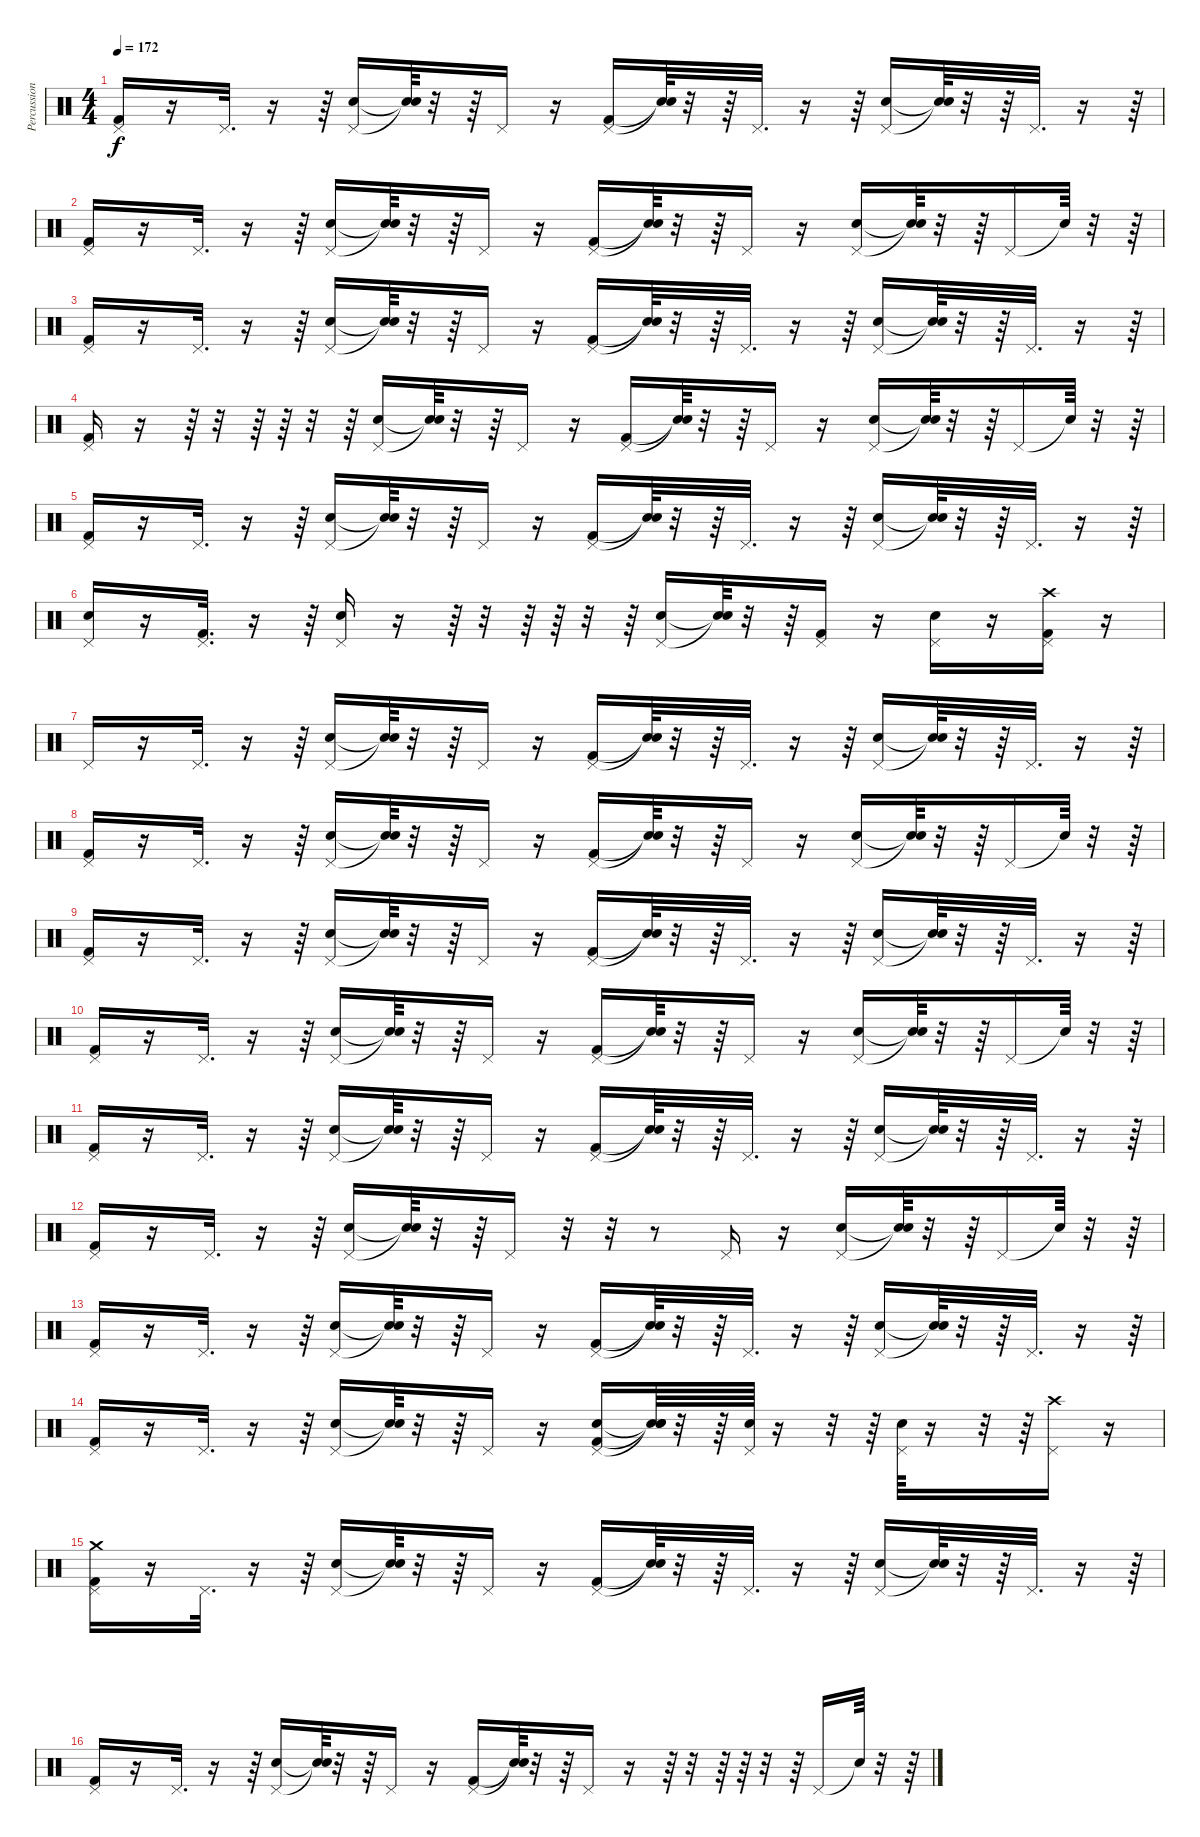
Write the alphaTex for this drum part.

\track ("Percussions" "Percussion") {instrument percussion}
\staff {score}
\articulation defaults
\ts (4 4)
\tempo 172
\clef neutral
\ks c
("Pedal Hi-Hat (hit)" "Kick (hit) 2").16{dy f} r.16 "Pedal Hi-Hat (hit)".32{d} r.16 r.64 ("Pedal Hi-Hat (hit)" "Snare (hit) 2").16 ("Snare (hit)"{t} "Snare (hit)"{t}).64 r.32 r.64 "Pedal Hi-Hat (hit)".16 r.16 ("Pedal Hi-Hat (hit)" "Kick (hit) 2").16 ("Snare (hit)"{t} "Snare (hit)"{t}).64 r.32 r.64 "Pedal Hi-Hat (hit)".32{d} r.16 r.64 ("Pedal Hi-Hat (hit)" "Snare (hit) 2").16 ("Snare (hit)"{t} "Snare (hit)"{t}).64 r.32 r.64 "Pedal Hi-Hat (hit)".32{d} r.16 r.64 |
("Pedal Hi-Hat (hit)" "Kick (hit) 2").16 r.16 "Pedal Hi-Hat (hit)".32{d} r.16 r.64 ("Pedal Hi-Hat (hit)" "Snare (hit) 2").16 ("Snare (hit)"{t} "Snare (hit)"{t}).64 r.32 r.64 "Pedal Hi-Hat (hit)".16 r.16 ("Pedal Hi-Hat (hit)" "Kick (hit) 2").16 ("Snare (hit)"{t} "Snare (hit)"{t}).64 r.32 r.64 "Pedal Hi-Hat (hit)".16 r.16 ("Pedal Hi-Hat (hit)" "Snare (hit) 2").16 ("Snare (hit)"{t} "Snare (hit)"{t}).64 r.32 r.64 "Pedal Hi-Hat (hit)".16 "Snare (hit)"{t}.64 r.32 r.64 |
("Pedal Hi-Hat (hit)" "Kick (hit) 2").16 r.16 "Pedal Hi-Hat (hit)".32{d} r.16 r.64 ("Pedal Hi-Hat (hit)" "Snare (hit) 2").16 ("Snare (hit)"{t} "Snare (hit)"{t}).64 r.32 r.64 "Pedal Hi-Hat (hit)".16 r.16 ("Pedal Hi-Hat (hit)" "Kick (hit) 2").16 ("Snare (hit)"{t} "Snare (hit)"{t}).64 r.32 r.64 "Pedal Hi-Hat (hit)".32{d} r.16 r.64 ("Pedal Hi-Hat (hit)" "Snare (hit) 2").16 ("Snare (hit)"{t} "Snare (hit)"{t}).64 r.32 r.64 "Pedal Hi-Hat (hit)".32{d} r.16 r.64 |
("Pedal Hi-Hat (hit)" "Kick (hit) 2").16 r.16 r.64 r.32 r.64 r.64 r.32 r.64 ("Pedal Hi-Hat (hit)" "Snare (hit) 2").16 ("Snare (hit)"{t} "Snare (hit)"{t}).64 r.32 r.64 "Pedal Hi-Hat (hit)".16 r.16 ("Pedal Hi-Hat (hit)" "Kick (hit) 2").16 ("Snare (hit)"{t} "Snare (hit)"{t}).64 r.32 r.64 "Pedal Hi-Hat (hit)".16 r.16 ("Pedal Hi-Hat (hit)" "Snare (hit) 2").16 ("Snare (hit)"{t} "Snare (hit)"{t}).64 r.32 r.64 "Pedal Hi-Hat (hit)".16 "Snare (hit)"{t}.64 r.32 r.64 |
("Pedal Hi-Hat (hit)" "Kick (hit) 2").16 r.16 "Pedal Hi-Hat (hit)".32{d} r.16 r.64 ("Pedal Hi-Hat (hit)" "Snare (hit) 2").16 ("Snare (hit)"{t} "Snare (hit)"{t}).64 r.32 r.64 "Pedal Hi-Hat (hit)".16 r.16 ("Pedal Hi-Hat (hit)" "Kick (hit) 2").16 ("Snare (hit)"{t} "Snare (hit)"{t}).64 r.32 r.64 "Pedal Hi-Hat (hit)".32{d} r.16 r.64 ("Pedal Hi-Hat (hit)" "Snare (hit) 2").16 ("Snare (hit)"{t} "Snare (hit)"{t}).64 r.32 r.64 "Pedal Hi-Hat (hit)".32{d} r.16 r.64 |
("Pedal Hi-Hat (hit)" "Snare (hit) 2").16 r.16 ("Pedal Hi-Hat (hit)" "Kick (hit) 2").32{d} r.16 r.64 ("Snare (hit) 2" "Pedal Hi-Hat (hit)").16 r.16 r.64 r.32 r.64 r.64 r.32 r.64 ("Pedal Hi-Hat (hit)" "Snare (hit) 2").16 ("Snare (hit)"{t} "Snare (hit)"{t}).64 r.32 r.64 ("Pedal Hi-Hat (hit)" "Kick (hit) 2").16 r.16 ("Snare (hit) 2" "Pedal Hi-Hat (hit)").16 r.16 ("Crash high (hit)" "Pedal Hi-Hat (hit)" "Kick (hit) 2").16 r.16 |
"Pedal Hi-Hat (hit)".16 r.16 "Pedal Hi-Hat (hit)".32{d} r.16 r.64 ("Pedal Hi-Hat (hit)" "Snare (hit) 2").16 ("Snare (hit)"{t} "Snare (hit)"{t}).64 r.32 r.64 "Pedal Hi-Hat (hit)".16 r.16 ("Pedal Hi-Hat (hit)" "Kick (hit) 2").16 ("Snare (hit)"{t} "Snare (hit)"{t}).64 r.32 r.64 "Pedal Hi-Hat (hit)".32{d} r.16 r.64 ("Pedal Hi-Hat (hit)" "Snare (hit) 2").16 ("Snare (hit)"{t} "Snare (hit)"{t}).64 r.32 r.64 "Pedal Hi-Hat (hit)".32{d} r.16 r.64 |
("Pedal Hi-Hat (hit)" "Kick (hit) 2").16 r.16 "Pedal Hi-Hat (hit)".32{d} r.16 r.64 ("Pedal Hi-Hat (hit)" "Snare (hit) 2").16 ("Snare (hit)"{t} "Snare (hit)"{t}).64 r.32 r.64 "Pedal Hi-Hat (hit)".16 r.16 ("Pedal Hi-Hat (hit)" "Kick (hit) 2").16 ("Snare (hit)"{t} "Snare (hit)"{t}).64 r.32 r.64 "Pedal Hi-Hat (hit)".16 r.16 ("Pedal Hi-Hat (hit)" "Snare (hit) 2").16 ("Snare (hit)"{t} "Snare (hit)"{t}).64 r.32 r.64 "Pedal Hi-Hat (hit)".16 "Snare (hit)"{t}.64 r.32 r.64 |
("Pedal Hi-Hat (hit)" "Kick (hit) 2").16 r.16 "Pedal Hi-Hat (hit)".32{d} r.16 r.64 ("Pedal Hi-Hat (hit)" "Snare (hit) 2").16 ("Snare (hit)"{t} "Snare (hit)"{t}).64 r.32 r.64 "Pedal Hi-Hat (hit)".16 r.16 ("Pedal Hi-Hat (hit)" "Kick (hit) 2").16 ("Snare (hit)"{t} "Snare (hit)"{t}).64 r.32 r.64 "Pedal Hi-Hat (hit)".32{d} r.16 r.64 ("Pedal Hi-Hat (hit)" "Snare (hit) 2").16 ("Snare (hit)"{t} "Snare (hit)"{t}).64 r.32 r.64 "Pedal Hi-Hat (hit)".32{d} r.16 r.64 |
("Pedal Hi-Hat (hit)" "Kick (hit) 2").16 r.16 "Pedal Hi-Hat (hit)".32{d} r.16 r.64 ("Pedal Hi-Hat (hit)" "Snare (hit) 2").16 ("Snare (hit)"{t} "Snare (hit)"{t}).64 r.32 r.64 "Pedal Hi-Hat (hit)".16 r.16 ("Pedal Hi-Hat (hit)" "Kick (hit) 2").16 ("Snare (hit)"{t} "Snare (hit)"{t}).64 r.32 r.64 "Pedal Hi-Hat (hit)".16 r.16 ("Pedal Hi-Hat (hit)" "Snare (hit) 2").16 ("Snare (hit)"{t} "Snare (hit)"{t}).64 r.32 r.64 "Pedal Hi-Hat (hit)".16 "Snare (hit)"{t}.64 r.32 r.64 |
("Pedal Hi-Hat (hit)" "Kick (hit) 2").16 r.16 "Pedal Hi-Hat (hit)".32{d} r.16 r.64 ("Pedal Hi-Hat (hit)" "Snare (hit) 2").16 ("Snare (hit)"{t} "Snare (hit)"{t}).64 r.32 r.64 "Pedal Hi-Hat (hit)".16 r.16 ("Pedal Hi-Hat (hit)" "Kick (hit) 2").16 ("Snare (hit)"{t} "Snare (hit)"{t}).64 r.32 r.64 "Pedal Hi-Hat (hit)".32{d} r.16 r.64 ("Pedal Hi-Hat (hit)" "Snare (hit) 2").16 ("Snare (hit)"{t} "Snare (hit)"{t}).64 r.32 r.64 "Pedal Hi-Hat (hit)".32{d} r.16 r.64 |
("Pedal Hi-Hat (hit)" "Kick (hit) 2").16 r.16 "Pedal Hi-Hat (hit)".32{d} r.16 r.64 ("Pedal Hi-Hat (hit)" "Snare (hit) 2").16 ("Snare (hit)"{t} "Snare (hit)"{t}).64 r.32 r.64 "Pedal Hi-Hat (hit)".16 r.32 r.32 r.8 "Pedal Hi-Hat (hit)".16 r.16 ("Pedal Hi-Hat (hit)" "Snare (hit) 2").16 ("Snare (hit)"{t} "Snare (hit)"{t}).64 r.32 r.64 "Pedal Hi-Hat (hit)".16 "Snare (hit)"{t}.64 r.32 r.64 |
("Pedal Hi-Hat (hit)" "Kick (hit) 2").16 r.16 "Pedal Hi-Hat (hit)".32{d} r.16 r.64 ("Pedal Hi-Hat (hit)" "Snare (hit) 2").16 ("Snare (hit)"{t} "Snare (hit)"{t}).64 r.32 r.64 "Pedal Hi-Hat (hit)".16 r.16 ("Pedal Hi-Hat (hit)" "Kick (hit) 2").16 ("Snare (hit)"{t} "Snare (hit)"{t}).64 r.32 r.64 "Pedal Hi-Hat (hit)".32{d} r.16 r.64 ("Pedal Hi-Hat (hit)" "Snare (hit) 2").16 ("Snare (hit)"{t} "Snare (hit)"{t}).64 r.32 r.64 "Pedal Hi-Hat (hit)".32{d} r.16 r.64 |
("Pedal Hi-Hat (hit)" "Kick (hit) 2").16 r.16 "Pedal Hi-Hat (hit)".32{d} r.16 r.64 ("Pedal Hi-Hat (hit)" "Snare (hit) 2").16 ("Snare (hit)"{t} "Snare (hit)"{t}).64 r.32 r.64 "Pedal Hi-Hat (hit)".16 r.16 ("Pedal Hi-Hat (hit)" "Kick (hit) 2" "Snare (hit) 2").16 ("Snare (hit)"{t} "Snare (hit)"{t} "Snare (hit)"{t}).64 r.32 r.64 ("Snare (hit) 2" "Pedal Hi-Hat (hit)").64 r.16 r.32 r.64 ("Snare (hit) 2" "Pedal Hi-Hat (hit)").64 r.16 r.32 r.64 ("Crash high (hit)" "Pedal Hi-Hat (hit)").16 r.16 |
("Pedal Hi-Hat (hit)" "Crash medium (hit)" "Kick (hit) 2").16 r.16 "Pedal Hi-Hat (hit)".32{d} r.16 r.64 ("Pedal Hi-Hat (hit)" "Snare (hit) 2").16 ("Snare (hit)"{t} "Snare (hit)"{t}).64 r.32 r.64 "Pedal Hi-Hat (hit)".16 r.16 ("Pedal Hi-Hat (hit)" "Kick (hit) 2").16 ("Snare (hit)"{t} "Snare (hit)"{t}).64 r.32 r.64 "Pedal Hi-Hat (hit)".32{d} r.16 r.64 ("Pedal Hi-Hat (hit)" "Snare (hit) 2").16 ("Snare (hit)"{t} "Snare (hit)"{t}).64 r.32 r.64 "Pedal Hi-Hat (hit)".32{d} r.16 r.64 |
("Pedal Hi-Hat (hit)" "Kick (hit) 2").16 r.16 "Pedal Hi-Hat (hit)".32{d} r.16 r.64 ("Pedal Hi-Hat (hit)" "Snare (hit) 2").16 ("Snare (hit)"{t} "Snare (hit)"{t}).64 r.32 r.64 "Pedal Hi-Hat (hit)".16 r.16 ("Pedal Hi-Hat (hit)" "Kick (hit) 2").16 ("Snare (hit)"{t} "Snare (hit)"{t}).64 r.32 r.64 "Pedal Hi-Hat (hit)".16 r.16 r.64 r.32 r.64 r.64 r.32 r.64 "Pedal Hi-Hat (hit)".16 "Snare (hit)"{t}.64 r.32 r.64
